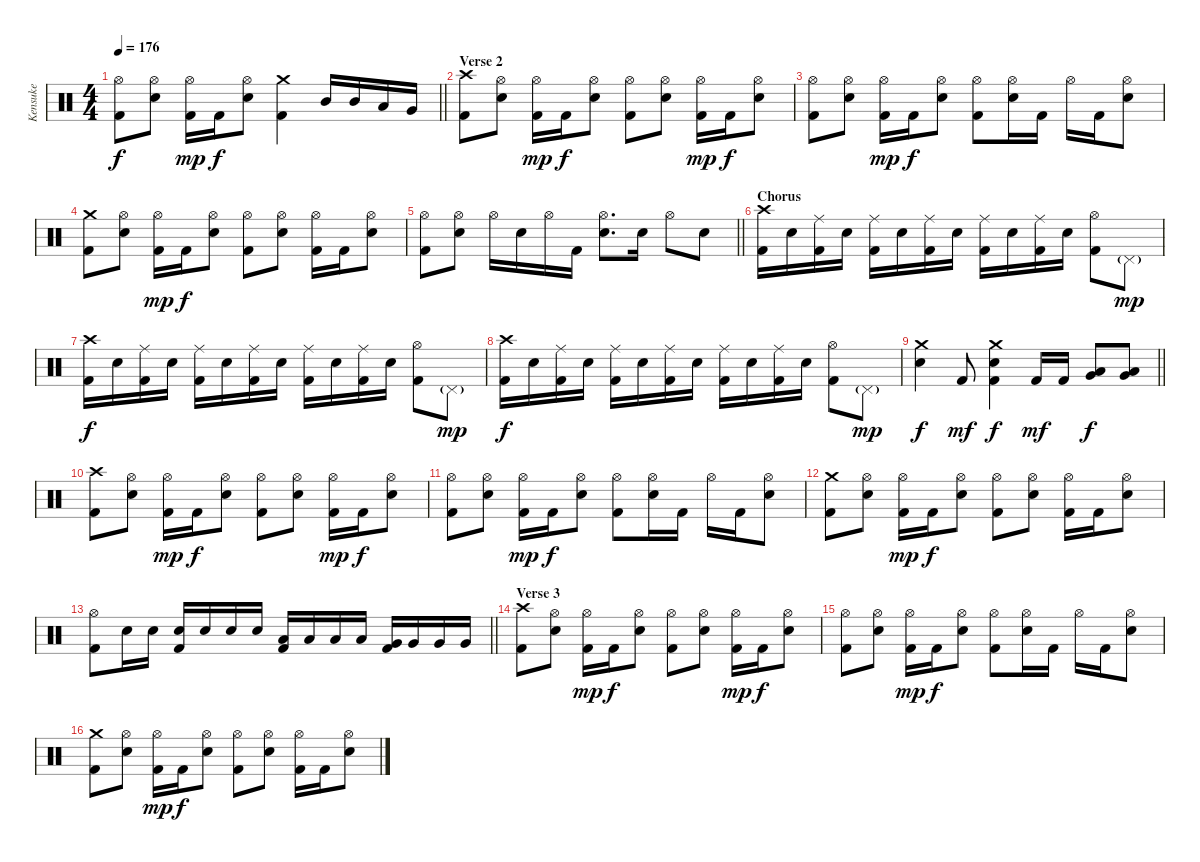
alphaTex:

\track ("Kensuke" "Kensuke") {instrument percussion}
\staff {score}
\articulation defaults
\ts (4 4)
\tempo 176
\clef neutral
\barLineRight lightlight
\ks c
("Hi-Hat (open)" "Kick (hit) 2").8{dy f} ("Hi-Hat (open)" "Electric Snare (hit)").8 ("Hi-Hat (open)" "Kick (hit) 2").16{dy mp} "Kick (hit) 2".16{dy f} ("Hi-Hat (open)" "Electric Snare (hit)").8 ("Crash medium (hit)" "Kick (hit) 2").4 "Mid Tom (hit)".16 "Mid Tom (hit)".16 "Low Tom (hit)".16 "Very Low Tom (hit)".16 |
\section ("" "Verse 2")
("Crash high (hit)" "Kick (hit) 2").8 ("Hi-Hat (open)" "Electric Snare (hit)").8 ("Hi-Hat (open)" "Kick (hit) 2").16{dy mp} "Kick (hit) 2".16{dy f} ("Hi-Hat (open)" "Electric Snare (hit)").8 ("Hi-Hat (open)" "Kick (hit) 2").8 ("Hi-Hat (open)" "Electric Snare (hit)").8 ("Hi-Hat (open)" "Kick (hit) 2").16{dy mp} "Kick (hit) 2".16{dy f} ("Hi-Hat (open)" "Electric Snare (hit)").8 |
("Hi-Hat (open)" "Kick (hit) 2").8 ("Hi-Hat (open)" "Electric Snare (hit)").8 ("Hi-Hat (open)" "Kick (hit) 2").16{dy mp} "Kick (hit) 2".16{dy f} ("Hi-Hat (open)" "Electric Snare (hit)").8 ("Hi-Hat (open)" "Kick (hit) 2").8 ("Hi-Hat (open)" "Electric Snare (hit)").16 "Kick (hit) 2".16 "Hi-Hat (open)".16 "Kick (hit) 2".16 ("Hi-Hat (open)" "Electric Snare (hit)").8 |
("Crash medium (hit)" "Kick (hit) 2").8 ("Hi-Hat (open)" "Electric Snare (hit)").8 ("Hi-Hat (open)" "Kick (hit) 2").16{dy mp} "Kick (hit) 2".16{dy f} ("Hi-Hat (open)" "Electric Snare (hit)").8 ("Hi-Hat (open)" "Kick (hit) 2").8 ("Hi-Hat (open)" "Electric Snare (hit)").8 ("Hi-Hat (open)" "Kick (hit) 2").16 "Kick (hit) 2".16 ("Hi-Hat (open)" "Electric Snare (hit)").8 |
\barLineRight lightlight
("Hi-Hat (open)" "Kick (hit) 2").8 ("Hi-Hat (open)" "Electric Snare (hit)").8 "Hi-Hat (open)".16 "Electric Snare (hit)".16 "Hi-Hat (open)".16 "Kick (hit) 2".16 ("Hi-Hat (open)" "Electric Snare (hit)").8{d} "Electric Snare (hit)".16 "Hi-Hat (open)".8 "Electric Snare (hit)".8 |
\section ("" "Chorus")
("Crash high (hit)" "Kick (hit) 2").16 "Electric Snare (hit)".16 ("Ride (middle)" "Kick (hit) 2").16 "Electric Snare (hit)".16 ("Ride (middle)" "Kick (hit) 2").16 "Electric Snare (hit)".16 ("Ride (middle)" "Kick (hit) 2").16 "Electric Snare (hit)".16 ("Ride (middle)" "Kick (hit) 2").16 "Electric Snare (hit)".16 ("Ride (middle)" "Kick (hit) 2").16 "Electric Snare (hit)".16 ("Hi-Hat (open)" "Kick (hit) 2").8 "Pedal Hi-Hat (hit)"{g}.8{dy mp} |
("Crash high (hit)" "Kick (hit) 2").16{dy f} "Electric Snare (hit)".16 ("Ride (middle)" "Kick (hit) 2").16 "Electric Snare (hit)".16 ("Ride (middle)" "Kick (hit) 2").16 "Electric Snare (hit)".16 ("Ride (middle)" "Kick (hit) 2").16 "Electric Snare (hit)".16 ("Ride (middle)" "Kick (hit) 2").16 "Electric Snare (hit)".16 ("Ride (middle)" "Kick (hit) 2").16 "Electric Snare (hit)".16 ("Hi-Hat (open)" "Kick (hit) 2").8 "Pedal Hi-Hat (hit)"{g}.8{dy mp} |
("Crash high (hit)" "Kick (hit) 2").16{dy f} "Electric Snare (hit)".16 ("Ride (middle)" "Kick (hit) 2").16 "Electric Snare (hit)".16 ("Ride (middle)" "Kick (hit) 2").16 "Electric Snare (hit)".16 ("Ride (middle)" "Kick (hit) 2").16 "Electric Snare (hit)".16 ("Ride (middle)" "Kick (hit) 2").16 "Electric Snare (hit)".16 ("Ride (middle)" "Kick (hit) 2").16 "Electric Snare (hit)".16 ("Hi-Hat (open)" "Kick (hit) 2").8 "Pedal Hi-Hat (hit)"{g}.8{dy mp} |
\barLineRight lightlight
("Crash medium (hit)" "Electric Snare (hit)").4{dy f} "Kick (hit) 2".8{dy mf} ("Crash medium (hit)" "Electric Snare (hit)" "Kick (hit) 2").4{dy f} "Kick (hit) 2".16{dy mf} "Kick (hit) 2".16 ("Very Low Tom (hit)" "Low Floor Tom (hit)").8{dy f} ("Very Low Tom (hit)" "Low Floor Tom (hit)").8 |
\section ("" "")
("Crash high (hit)" "Kick (hit) 2").8 ("Hi-Hat (open)" "Electric Snare (hit)").8 ("Hi-Hat (open)" "Kick (hit) 2").16{dy mp} "Kick (hit) 2".16{dy f} ("Hi-Hat (open)" "Electric Snare (hit)").8 ("Hi-Hat (open)" "Kick (hit) 2").8 ("Hi-Hat (open)" "Electric Snare (hit)").8 ("Hi-Hat (open)" "Kick (hit) 2").16{dy mp} "Kick (hit) 2".16{dy f} ("Hi-Hat (open)" "Electric Snare (hit)").8 |
("Hi-Hat (open)" "Kick (hit) 2").8 ("Hi-Hat (open)" "Electric Snare (hit)").8 ("Hi-Hat (open)" "Kick (hit) 2").16{dy mp} "Kick (hit) 2".16{dy f} ("Hi-Hat (open)" "Electric Snare (hit)").8 ("Hi-Hat (open)" "Kick (hit) 2").8 ("Hi-Hat (open)" "Electric Snare (hit)").16 "Kick (hit) 2".16 "Hi-Hat (open)".16 "Kick (hit) 2".16 ("Hi-Hat (open)" "Electric Snare (hit)").8 |
("Crash medium (hit)" "Kick (hit) 2").8 ("Hi-Hat (open)" "Electric Snare (hit)").8 ("Hi-Hat (open)" "Kick (hit) 2").16{dy mp} "Kick (hit) 2".16{dy f} ("Hi-Hat (open)" "Electric Snare (hit)").8 ("Hi-Hat (open)" "Kick (hit) 2").8 ("Hi-Hat (open)" "Electric Snare (hit)").8 ("Hi-Hat (open)" "Kick (hit) 2").16 "Kick (hit) 2".16 ("Hi-Hat (open)" "Electric Snare (hit)").8 |
\barLineRight lightlight
("Hi-Hat (open)" "Kick (hit) 2").8 "Electric Snare (hit)".16 "Electric Snare (hit)".16 ("Electric Snare (hit)" "Kick (hit) 2").16 "Electric Snare (hit)".16 "Electric Snare (hit)".16 "Electric Snare (hit)".16 ("Low Tom (hit)" "Kick (hit) 2").16 "Low Tom (hit)".16 "Low Tom (hit)".16 "Low Tom (hit)".16 ("Very Low Tom (hit)" "Kick (hit) 2").16 "Very Low Tom (hit)".16 "Very Low Tom (hit)".16 "Very Low Tom (hit)".16 |
\section ("" "Verse 3")
("Crash high (hit)" "Kick (hit) 2").8 ("Hi-Hat (open)" "Electric Snare (hit)").8 ("Hi-Hat (open)" "Kick (hit) 2").16{dy mp} "Kick (hit) 2".16{dy f} ("Hi-Hat (open)" "Electric Snare (hit)").8 ("Hi-Hat (open)" "Kick (hit) 2").8 ("Hi-Hat (open)" "Electric Snare (hit)").8 ("Hi-Hat (open)" "Kick (hit) 2").16{dy mp} "Kick (hit) 2".16{dy f} ("Hi-Hat (open)" "Electric Snare (hit)").8 |
("Hi-Hat (open)" "Kick (hit) 2").8 ("Hi-Hat (open)" "Electric Snare (hit)").8 ("Hi-Hat (open)" "Kick (hit) 2").16{dy mp} "Kick (hit) 2".16{dy f} ("Hi-Hat (open)" "Electric Snare (hit)").8 ("Hi-Hat (open)" "Kick (hit) 2").8 ("Hi-Hat (open)" "Electric Snare (hit)").16 "Kick (hit) 2".16 "Hi-Hat (open)".16 "Kick (hit) 2".16 ("Hi-Hat (open)" "Electric Snare (hit)").8 |
("Crash medium (hit)" "Kick (hit) 2").8 ("Hi-Hat (open)" "Electric Snare (hit)").8 ("Hi-Hat (open)" "Kick (hit) 2").16{dy mp} "Kick (hit) 2".16{dy f} ("Hi-Hat (open)" "Electric Snare (hit)").8 ("Hi-Hat (open)" "Kick (hit) 2").8 ("Hi-Hat (open)" "Electric Snare (hit)").8 ("Hi-Hat (open)" "Kick (hit) 2").16 "Kick (hit) 2".16 ("Hi-Hat (open)" "Electric Snare (hit)").8
